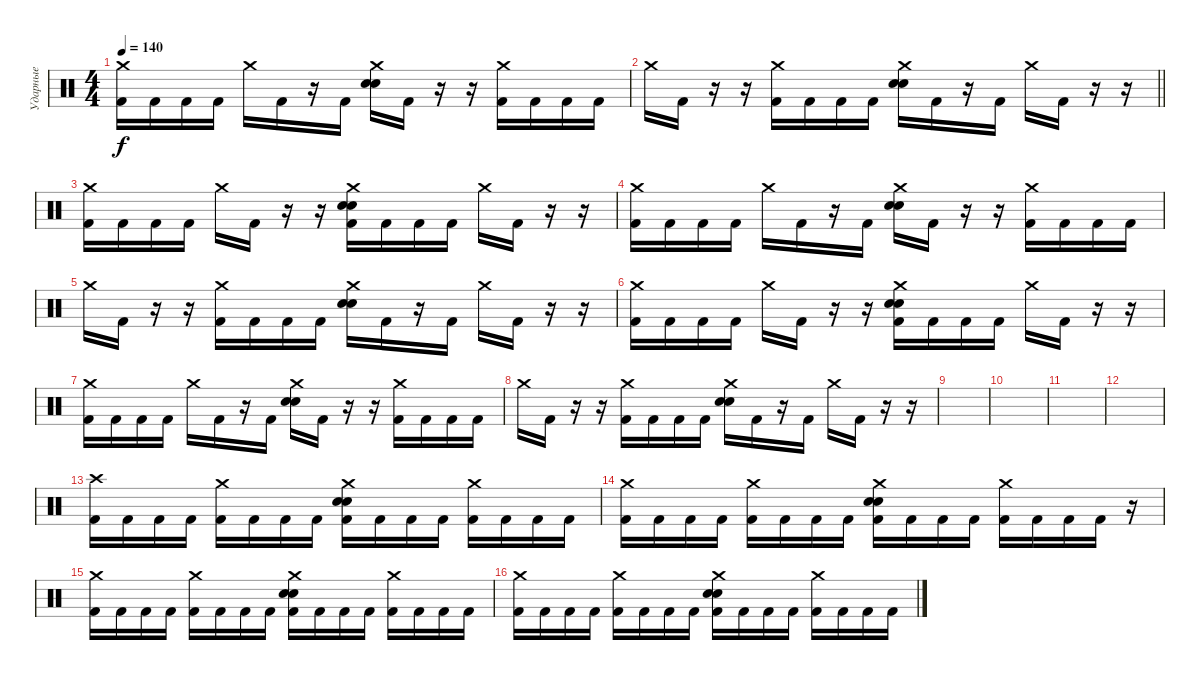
\track ("Ударные" "Ударные") {instrument percussion}
\staff {score}
\articulation defaults
\ts (4 4)
\tempo 140
\clef neutral
\ks c
("Crash medium (hit)" "Kick (hit) 2").16{dy f} "Kick (hit) 2".16 "Kick (hit) 2".16 "Kick (hit) 2".16 "Crash medium (hit)".16 "Kick (hit) 2".16 r.16 "Kick (hit) 2".16 ("Crash medium (hit)" "Electric Snare (hit)" "Snare (hit) 2").16 "Kick (hit) 2".16 r.16 r.16 ("Crash medium (hit)" "Kick (hit) 2").16 "Kick (hit) 2".16 "Kick (hit) 2".16 "Kick (hit) 2".16 |
\barLineRight lightlight "Crash medium (hit)".16 "Kick (hit) 2".16
r.16 r.16 ("Crash medium (hit)" "Kick (hit) 2").16 "Kick (hit) 2".16 "Kick (hit) 2".16 "Kick (hit) 2".16 ("Crash medium (hit)" "Electric Snare (hit)" "Snare (hit) 2").16 "Kick (hit) 2".16 r.16 "Kick (hit) 2".16 "Crash medium (hit)".16 "Kick (hit) 2".16 r.16 r.16 |
("Crash medium (hit)" "Kick (hit) 2").16 "Kick (hit) 2".16 "Kick (hit) 2".16 "Kick (hit) 2".16 "Crash medium (hit)".16 "Kick (hit) 2".16 r.16 r.16 ("Crash medium (hit)" "Snare (hit) 2" "Electric Snare (hit)" "Kick (hit) 2").16 "Kick (hit) 2".16 "Kick (hit) 2".16 "Kick (hit) 2".16 "Crash medium (hit)".16 "Kick (hit) 2".16 r.16 r.16 |
("Crash medium (hit)" "Kick (hit) 2").16 "Kick (hit) 2".16 "Kick (hit) 2".16 "Kick (hit) 2".16 "Crash medium (hit)".16 "Kick (hit) 2".16 r.16 "Kick (hit) 2".16 ("Crash medium (hit)" "Electric Snare (hit)" "Snare (hit) 2").16 "Kick (hit) 2".16 r.16 r.16 ("Crash medium (hit)" "Kick (hit) 2").16 "Kick (hit) 2".16 "Kick (hit) 2".16 "Kick (hit) 2".16 |
"Crash medium (hit)".16 "Kick (hit) 2".16 r.16 r.16 ("Crash medium (hit)" "Kick (hit) 2").16 "Kick (hit) 2".16 "Kick (hit) 2".16 "Kick (hit) 2".16 ("Crash medium (hit)" "Electric Snare (hit)" "Snare (hit) 2").16 "Kick (hit) 2".16 r.16 "Kick (hit) 2".16 "Crash medium (hit)".16 "Kick (hit) 2".16 r.16 r.16 |
("Crash medium (hit)" "Kick (hit) 2").16 "Kick (hit) 2".16 "Kick (hit) 2".16 "Kick (hit) 2".16 "Crash medium (hit)".16 "Kick (hit) 2".16 r.16 r.16 ("Crash medium (hit)" "Snare (hit) 2" "Electric Snare (hit)" "Kick (hit) 2").16 "Kick (hit) 2".16 "Kick (hit) 2".16 "Kick (hit) 2".16 "Crash medium (hit)".16 "Kick (hit) 2".16 r.16 r.16 |
("Crash medium (hit)" "Kick (hit) 2").16 "Kick (hit) 2".16 "Kick (hit) 2".16 "Kick (hit) 2".16 "Crash medium (hit)".16 "Kick (hit) 2".16 r.16 "Kick (hit) 2".16 ("Crash medium (hit)" "Electric Snare (hit)" "Snare (hit) 2").16 "Kick (hit) 2".16 r.16 r.16 ("Crash medium (hit)" "Kick (hit) 2").16 "Kick (hit) 2".16 "Kick (hit) 2".16 "Kick (hit) 2".16 |
"Crash medium (hit)".16 "Kick (hit) 2".16 r.16 r.16 ("Crash medium (hit)" "Kick (hit) 2").16 "Kick (hit) 2".16 "Kick (hit) 2".16 "Kick (hit) 2".16 ("Crash medium (hit)" "Electric Snare (hit)" "Snare (hit) 2").16 "Kick (hit) 2".16 r.16 "Kick (hit) 2".16 "Crash medium (hit)".16 "Kick (hit) 2".16 r.16 r.16 |
|
|
|
|
("Crash high (hit)" "Kick (hit) 2").16 "Kick (hit) 2".16 "Kick (hit) 2".16 "Kick (hit) 2".16 ("Crash medium (hit)" "Kick (hit) 2").16 "Kick (hit) 2".16 "Kick (hit) 2".16 "Kick (hit) 2".16 ("Crash medium (hit)" "Electric Snare (hit)" "Snare (hit) 2" "Kick (hit) 2").16 "Kick (hit) 2".16 "Kick (hit) 2".16 "Kick (hit) 2".16 ("Crash medium (hit)" "Kick (hit) 2").16 "Kick (hit) 2".16 "Kick (hit) 2".16 "Kick (hit) 2".16 |
("Crash medium (hit)" "Kick (hit) 2").16 "Kick (hit) 2".16 "Kick (hit) 2".16 "Kick (hit) 2".16 ("Crash medium (hit)" "Kick (hit) 2").16 "Kick (hit) 2".16 "Kick (hit) 2".16 "Kick (hit) 2".16 ("Crash medium (hit)" "Electric Snare (hit)" "Snare (hit) 2" "Kick (hit) 2").16 "Kick (hit) 2".16 "Kick (hit) 2".16 "Kick (hit) 2".16 ("Crash medium (hit)" "Kick (hit) 2").16 "Kick (hit) 2".16 "Kick (hit) 2".16 "Kick (hit) 2".16 r.16 |
("Crash medium (hit)" "Kick (hit) 2").16 "Kick (hit) 2".16 "Kick (hit) 2".16 "Kick (hit) 2".16 ("Crash medium (hit)" "Kick (hit) 2").16 "Kick (hit) 2".16 "Kick (hit) 2".16 "Kick (hit) 2".16 ("Crash medium (hit)" "Electric Snare (hit)" "Snare (hit) 2" "Kick (hit) 2").16 "Kick (hit) 2".16 "Kick (hit) 2".16 "Kick (hit) 2".16 ("Crash medium (hit)" "Kick (hit) 2").16 "Kick (hit) 2".16 "Kick (hit) 2".16 "Kick (hit) 2".16 |
("Crash medium (hit)" "Kick (hit) 2").16 "Kick (hit) 2".16 "Kick (hit) 2".16 "Kick (hit) 2".16 ("Crash medium (hit)" "Kick (hit) 2").16 "Kick (hit) 2".16 "Kick (hit) 2".16 "Kick (hit) 2".16 ("Crash medium (hit)" "Electric Snare (hit)" "Snare (hit) 2" "Kick (hit) 2").16 "Kick (hit) 2".16 "Kick (hit) 2".16 "Kick (hit) 2".16 ("Crash medium (hit)" "Kick (hit) 2").16 "Kick (hit) 2".16 "Kick (hit) 2".16 "Kick (hit) 2".16
